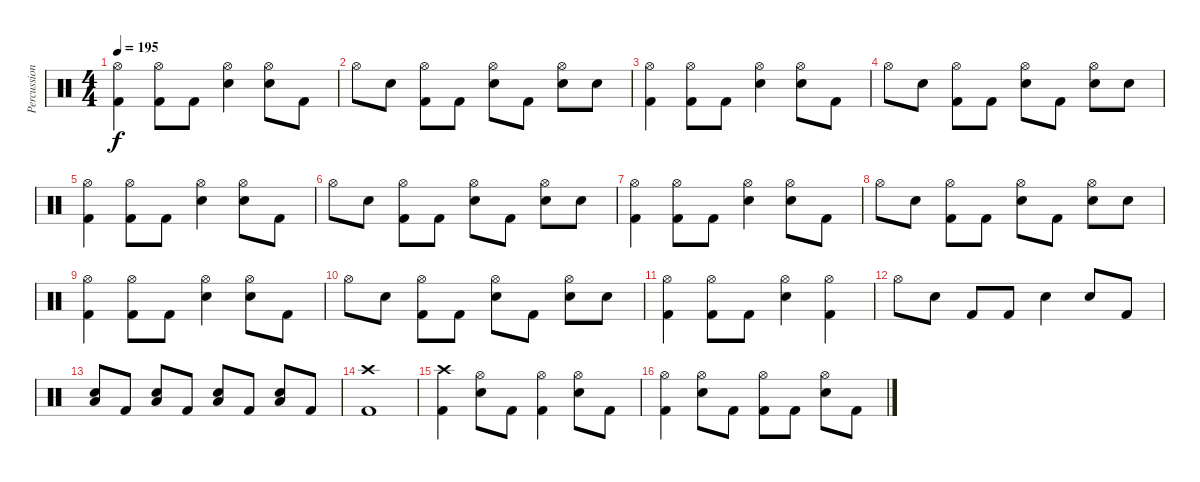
\track ("Percussions" "Percussion") {instrument percussion}
\staff {score}
\articulation defaults
\ts (4 4)
\tempo 195
\clef neutral
\ks c
("Hi-Hat (open)" "Kick (hit) 2").4{dy f} ("Hi-Hat (open)" "Kick (hit) 2").8 "Kick (hit) 2".8 ("Hi-Hat (open)" "Snare (hit) 2").4 ("Hi-Hat (open)" "Snare (hit) 2").8 "Kick (hit) 2".8 |
"Hi-Hat (open)".8 "Snare (hit) 2".8 ("Hi-Hat (open)" "Kick (hit) 2").8 "Kick (hit) 2".8 ("Hi-Hat (open)" "Snare (hit) 2").8 "Kick (hit) 2".8 ("Hi-Hat (open)" "Snare (hit) 2").8 "Snare (hit) 2".8 |
("Hi-Hat (open)" "Kick (hit) 2").4 ("Hi-Hat (open)" "Kick (hit) 2").8 "Kick (hit) 2".8 ("Hi-Hat (open)" "Snare (hit) 2").4 ("Hi-Hat (open)" "Snare (hit) 2").8 "Kick (hit) 2".8 |
"Hi-Hat (open)".8 "Snare (hit) 2".8 ("Hi-Hat (open)" "Kick (hit) 2").8 "Kick (hit) 2".8 ("Hi-Hat (open)" "Snare (hit) 2").8 "Kick (hit) 2".8 ("Hi-Hat (open)" "Snare (hit) 2").8 "Snare (hit) 2".8 |
("Hi-Hat (open)" "Kick (hit) 2").4 ("Hi-Hat (open)" "Kick (hit) 2").8 "Kick (hit) 2".8 ("Hi-Hat (open)" "Snare (hit) 2").4 ("Hi-Hat (open)" "Snare (hit) 2").8 "Kick (hit) 2".8 |
"Hi-Hat (open)".8 "Snare (hit) 2".8 ("Hi-Hat (open)" "Kick (hit) 2").8 "Kick (hit) 2".8 ("Hi-Hat (open)" "Snare (hit) 2").8 "Kick (hit) 2".8 ("Hi-Hat (open)" "Snare (hit) 2").8 "Snare (hit) 2".8 |
("Hi-Hat (open)" "Kick (hit) 2").4 ("Hi-Hat (open)" "Kick (hit) 2").8 "Kick (hit) 2".8 ("Hi-Hat (open)" "Snare (hit) 2").4 ("Hi-Hat (open)" "Snare (hit) 2").8 "Kick (hit) 2".8 |
"Hi-Hat (open)".8 "Snare (hit) 2".8 ("Hi-Hat (open)" "Kick (hit) 2").8 "Kick (hit) 2".8 ("Hi-Hat (open)" "Snare (hit) 2").8 "Kick (hit) 2".8 ("Hi-Hat (open)" "Snare (hit) 2").8 "Snare (hit) 2".8 |
("Hi-Hat (open)" "Kick (hit) 2").4 ("Hi-Hat (open)" "Kick (hit) 2").8 "Kick (hit) 2".8 ("Hi-Hat (open)" "Snare (hit) 2").4 ("Hi-Hat (open)" "Snare (hit) 2").8 "Kick (hit) 2".8 |
"Hi-Hat (open)".8 "Snare (hit) 2".8 ("Hi-Hat (open)" "Kick (hit) 2").8 "Kick (hit) 2".8 ("Hi-Hat (open)" "Snare (hit) 2").8 "Kick (hit) 2".8 ("Hi-Hat (open)" "Snare (hit) 2").8 "Snare (hit) 2".8 |
("Hi-Hat (open)" "Kick (hit) 2").4 ("Hi-Hat (open)" "Kick (hit) 2").8 "Kick (hit) 2".8 ("Hi-Hat (open)" "Snare (hit) 2").4 ("Hi-Hat (open)" "Kick (hit) 2").4 |
"Hi-Hat (open)".8 "Snare (hit) 2".8 "Kick (hit) 2".8 "Kick (hit) 2".8 "Snare (hit) 2".4 "Snare (hit) 2".8 "Kick (hit) 2".8 |
("Snare (hit) 2" "Low Tom (hit)").8 "Kick (hit) 2".8 ("Snare (hit) 2" "Low Tom (hit)").8 "Kick (hit) 2".8 ("Snare (hit) 2" "Low Tom (hit)").8 "Kick (hit) 2".8 ("Snare (hit) 2" "Low Tom (hit)").8 "Kick (hit) 2".8 |
("Crash high (hit)" "Kick (hit) 2").1 |
("Crash high (hit)" "Kick (hit) 2").4 ("Hi-Hat (open)" "Snare (hit) 2").8 "Kick (hit) 2".8 ("Hi-Hat (open)" "Kick (hit) 2").4 ("Hi-Hat (open)" "Snare (hit) 2").8 "Kick (hit) 2".8 |
("Hi-Hat (open)" "Kick (hit) 2").4 ("Hi-Hat (open)" "Snare (hit) 2").8 "Kick (hit) 2".8 ("Hi-Hat (open)" "Kick (hit) 2").8 "Kick (hit) 2".8 ("Hi-Hat (open)" "Snare (hit) 2").8 "Kick (hit) 2".8
